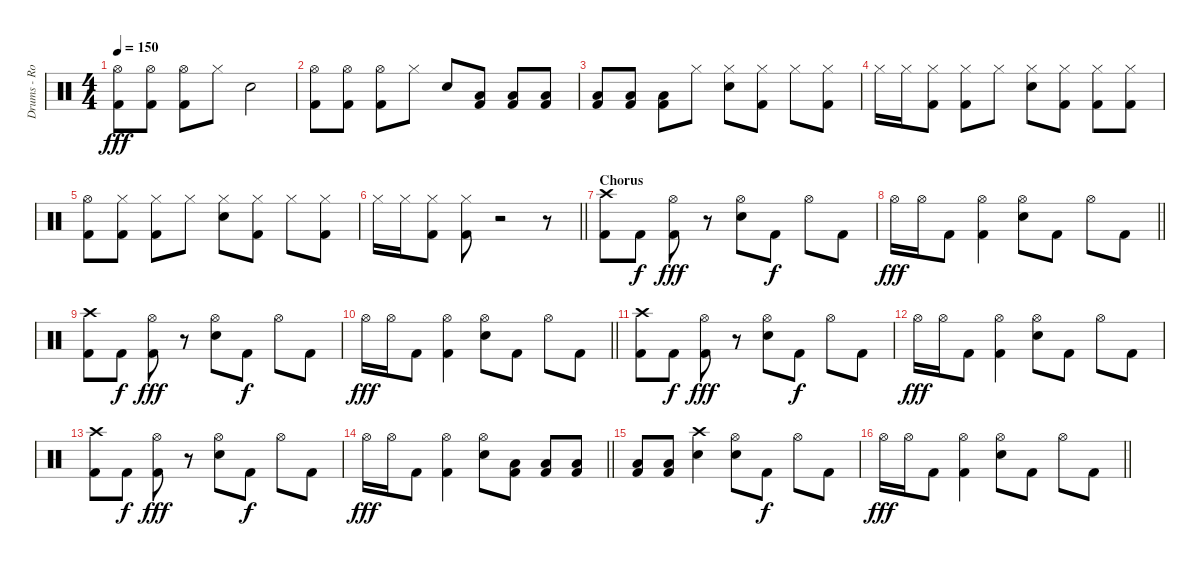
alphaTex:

\track ("Drums - Rob Bourdon" "Drums - Ro") {instrument percussion}
\staff {score}
\articulation defaults
\ts (4 4)
\tempo 150
\clef neutral
\ks c
("Hi-Hat (open)" "Kick (hit) 2").8{dy fff} ("Hi-Hat (open)" "Kick (hit) 2").8 ("Hi-Hat (open)" "Kick (hit) 2").8 "Hi-Hat (closed)".8 "Electric Snare (hit)".2 |
("Hi-Hat (open)" "Kick (hit) 2").8 ("Hi-Hat (open)" "Kick (hit) 2").8 ("Hi-Hat (open)" "Kick (hit) 2").8 "Hi-Hat (closed)".8 "Electric Snare (hit)".8 ("Low Tom (hit)" "Kick (hit) 2").8 ("Low Tom (hit)" "Kick (hit) 2").8 ("Low Tom (hit)" "Kick (hit) 2").8 |
("Low Tom (hit)" "Kick (hit) 2").8 ("Low Tom (hit)" "Kick (hit) 2").8 ("Low Tom (hit)" "Kick (hit) 2").8 "Hi-Hat (closed)".8 ("Hi-Hat (closed)" "Snare (hit) 2").8 ("Hi-Hat (closed)" "Kick (hit) 2").8 "Hi-Hat (closed)".8 ("Hi-Hat (closed)" "Kick (hit) 2").8 |
"Hi-Hat (closed)".16 "Hi-Hat (closed)".16 ("Hi-Hat (closed)" "Kick (hit) 2").8 ("Hi-Hat (closed)" "Kick (hit) 2").8 "Hi-Hat (closed)".8 ("Hi-Hat (closed)" "Snare (hit) 2").8 ("Hi-Hat (closed)" "Kick (hit) 2").8 ("Hi-Hat (closed)" "Kick (hit) 2").8 ("Hi-Hat (closed)" "Kick (hit) 2").8 |
("Hi-Hat (open)" "Kick (hit) 2").8 ("Hi-Hat (closed)" "Kick (hit) 2").8 ("Hi-Hat (closed)" "Kick (hit) 2").8 "Hi-Hat (closed)".8 ("Hi-Hat (closed)" "Snare (hit) 2").8 ("Hi-Hat (closed)" "Kick (hit) 2").8 "Hi-Hat (closed)".8 ("Hi-Hat (closed)" "Kick (hit) 2").8 |
\barLineRight lightlight "Hi-Hat (closed)".16 "Hi-Hat (closed)".16
("Hi-Hat (closed)" "Kick (hit) 2").8 ("Hi-Hat (closed)" "Kick (hit) 2").8 r.2 r.8 |
\section ("" "Chorus")
("Crash high (hit)" "Kick (hit) 2").8 "Kick (hit) 2".8{dy f} ("Hi-Hat (open)" "Kick (hit) 2").8{dy fff} r.8 ("Hi-Hat (open)" "Snare (hit) 2").8 "Kick (hit) 2".8{dy f} "Hi-Hat (open)".8 "Kick (hit) 2".8 |
\barLineRight lightlight "Hi-Hat (open)".16{dy fff} "Hi-Hat (open)".16 "Kick (hit) 2".8
("Hi-Hat (open)" "Kick (hit) 2").4 ("Hi-Hat (open)" "Snare (hit) 2").8 "Kick (hit) 2".8 "Hi-Hat (open)".8 "Kick (hit) 2".8 |
("Crash high (hit)" "Kick (hit) 2").8 "Kick (hit) 2".8{dy f} ("Hi-Hat (open)" "Kick (hit) 2").8{dy fff} r.8 ("Hi-Hat (open)" "Snare (hit) 2").8 "Kick (hit) 2".8{dy f} "Hi-Hat (open)".8 "Kick (hit) 2".8 |
\barLineRight lightlight "Hi-Hat (open)".16{dy fff} "Hi-Hat (open)".16 "Kick (hit) 2".8
("Hi-Hat (open)" "Kick (hit) 2").4 ("Hi-Hat (open)" "Snare (hit) 2").8 "Kick (hit) 2".8 "Hi-Hat (open)".8 "Kick (hit) 2".8 |
("Crash high (hit)" "Kick (hit) 2").8 "Kick (hit) 2".8{dy f} ("Hi-Hat (open)" "Kick (hit) 2").8{dy fff} r.8 ("Hi-Hat (open)" "Snare (hit) 2").8 "Kick (hit) 2".8{dy f} "Hi-Hat (open)".8 "Kick (hit) 2".8 |
"Hi-Hat (open)".16{dy fff} "Hi-Hat (open)".16 "Kick (hit) 2".8 ("Hi-Hat (open)" "Kick (hit) 2").4 ("Hi-Hat (open)" "Snare (hit) 2").8 "Kick (hit) 2".8 "Hi-Hat (open)".8 "Kick (hit) 2".8 |
("Crash high (hit)" "Kick (hit) 2").8 "Kick (hit) 2".8{dy f} ("Hi-Hat (open)" "Kick (hit) 2").8{dy fff} r.8 ("Hi-Hat (open)" "Snare (hit) 2").8 "Kick (hit) 2".8{dy f} "Hi-Hat (open)".8 "Kick (hit) 2".8 |
\barLineRight lightlight "Hi-Hat (open)".16{dy fff} "Hi-Hat (open)".16 "Kick (hit) 2".8
("Hi-Hat (open)" "Kick (hit) 2").4 ("Hi-Hat (open)" "Snare (hit) 2").8 ("Low Tom (hit)" "Kick (hit) 2").8 ("Low Tom (hit)" "Kick (hit) 2").8 ("Low Tom (hit)" "Kick (hit) 2").8 |
("Low Tom (hit)" "Kick (hit) 2").8 ("Low Tom (hit)" "Kick (hit) 2").8 ("Crash high (hit)" "Snare (hit) 2").4 ("Hi-Hat (open)" "Snare (hit) 2").8 "Kick (hit) 2".8{dy f} "Hi-Hat (open)".8 "Kick (hit) 2".8 |
\barLineRight lightlight "Hi-Hat (open)".16{dy fff} "Hi-Hat (open)".16 "Kick (hit) 2".8
("Hi-Hat (open)" "Kick (hit) 2").4 ("Hi-Hat (open)" "Snare (hit) 2").8 "Kick (hit) 2".8 "Hi-Hat (open)".8 "Kick (hit) 2".8
